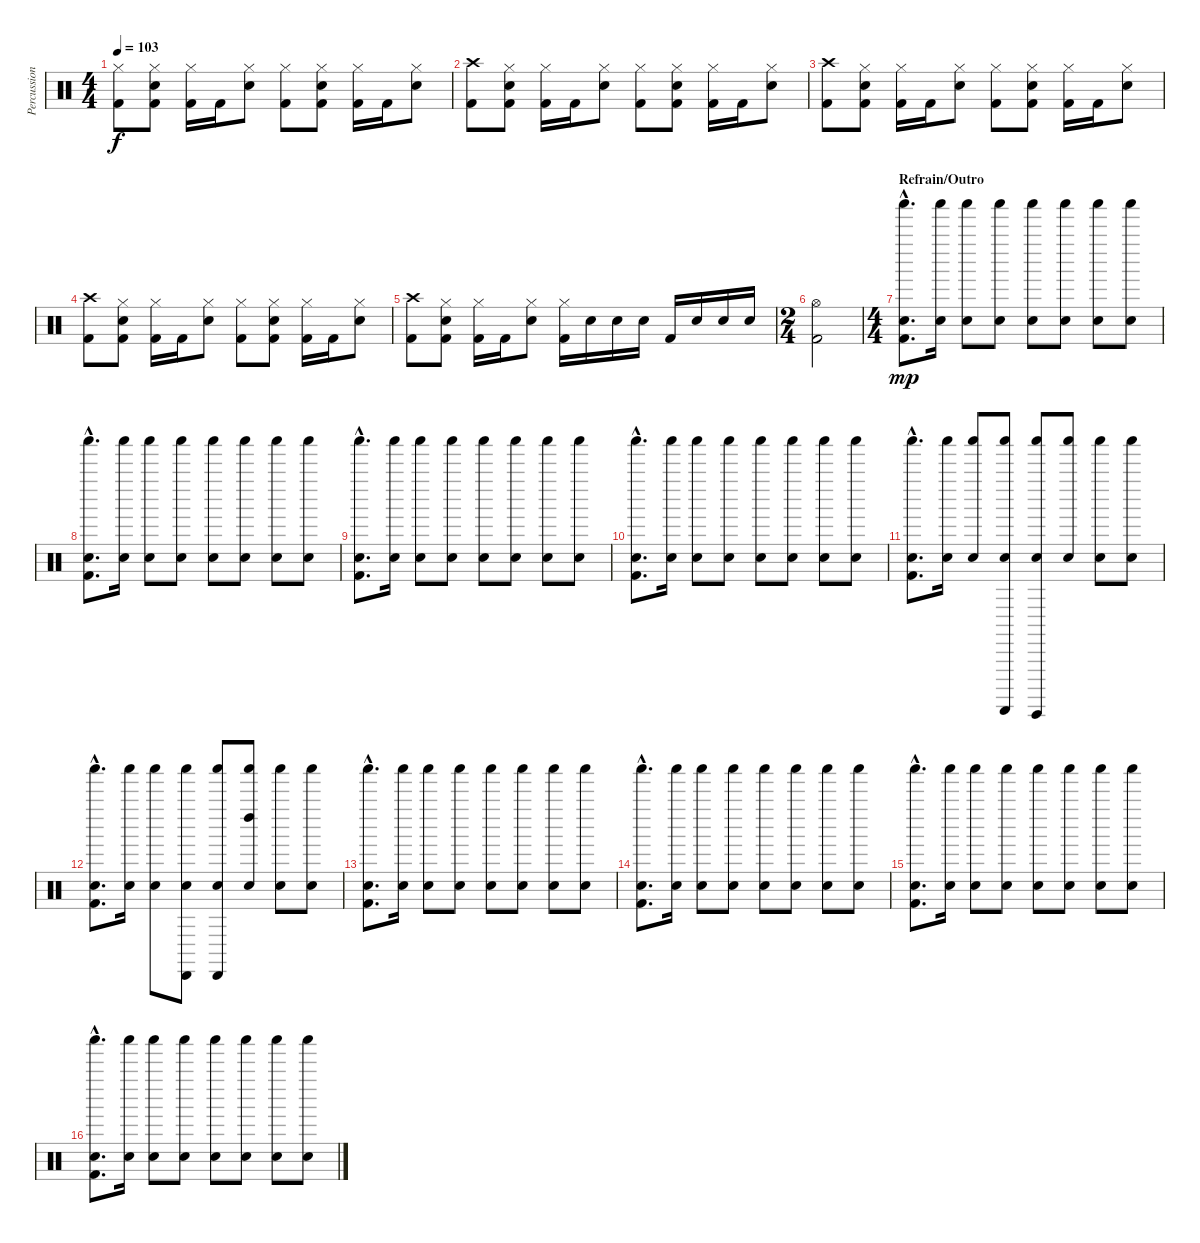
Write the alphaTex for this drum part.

\track ("Percussion" "Percussion") {instrument percussion}
\staff {score}
\articulation defaults
\ts (4 4)
\tempo 103
\clef neutral
\ks c
("Hi-Hat (closed)" "Kick (hit) 2").8{dy f} ("Hi-Hat (closed)" "Electric Snare (hit)" "Kick (hit) 2").8 ("Hi-Hat (closed)" "Kick (hit) 2").16 "Kick (hit) 2".16 ("Hi-Hat (closed)" "Electric Snare (hit)").8 ("Hi-Hat (closed)" "Kick (hit) 2").8 ("Hi-Hat (closed)" "Electric Snare (hit)" "Kick (hit) 2").8 ("Hi-Hat (closed)" "Kick (hit) 2").16 "Kick (hit) 2".16 ("Hi-Hat (closed)" "Electric Snare (hit)").8 |
("Crash high (hit)" "Kick (hit) 2").8 ("Hi-Hat (closed)" "Electric Snare (hit)" "Kick (hit) 2").8 ("Hi-Hat (closed)" "Kick (hit) 2").16 "Kick (hit) 2".16 ("Hi-Hat (closed)" "Electric Snare (hit)").8 ("Hi-Hat (closed)" "Kick (hit) 2").8 ("Hi-Hat (closed)" "Electric Snare (hit)" "Kick (hit) 2").8 ("Hi-Hat (closed)" "Kick (hit) 2").16 "Kick (hit) 2".16 ("Hi-Hat (closed)" "Electric Snare (hit)").8 |
("Crash high (hit)" "Kick (hit) 2").8 ("Hi-Hat (closed)" "Electric Snare (hit)" "Kick (hit) 2").8 ("Hi-Hat (closed)" "Kick (hit) 2").16 "Kick (hit) 2".16 ("Hi-Hat (closed)" "Electric Snare (hit)").8 ("Hi-Hat (closed)" "Kick (hit) 2").8 ("Hi-Hat (closed)" "Electric Snare (hit)" "Kick (hit) 2").8 ("Hi-Hat (closed)" "Kick (hit) 2").16 "Kick (hit) 2".16 ("Hi-Hat (closed)" "Electric Snare (hit)").8 |
("Crash high (hit)" "Kick (hit) 2").8 ("Hi-Hat (closed)" "Electric Snare (hit)" "Kick (hit) 2").8 ("Hi-Hat (closed)" "Kick (hit) 2").16 "Kick (hit) 2".16 ("Hi-Hat (closed)" "Electric Snare (hit)").8 ("Hi-Hat (closed)" "Kick (hit) 2").8 ("Hi-Hat (closed)" "Electric Snare (hit)" "Kick (hit) 2").8 ("Hi-Hat (closed)" "Kick (hit) 2").16 "Kick (hit) 2".16 ("Hi-Hat (closed)" "Electric Snare (hit)").8 |
("Crash high (hit)" "Kick (hit) 2").8 ("Hi-Hat (closed)" "Electric Snare (hit)" "Kick (hit) 2").8 ("Hi-Hat (closed)" "Kick (hit) 2").16 "Kick (hit) 2".16 ("Hi-Hat (closed)" "Electric Snare (hit)").8 ("Hi-Hat (closed)" "Kick (hit) 2").16 "Electric Snare (hit)".16 "Electric Snare (hit)".16 "Electric Snare (hit)".16 "Kick (hit) 2".16 "Electric Snare (hit)".16 "Electric Snare (hit)".16 "Electric Snare (hit)".16 |
\ts (2 4)
("Hi-Hat (open)" "Kick (hit) 2").2 |
\ts (4 4)
\section ("" "Refrain/Outro")
("Electric Snare (hit)"{hac} "Shaker (hit)"{hac} "Kick (hit) 2"{hac}).8{d dy mp} ("Electric Snare (hit)" "Shaker (hit)").16 ("Electric Snare (hit)" "Shaker (hit)").8 ("Electric Snare (hit)" "Shaker (hit)").8 ("Electric Snare (hit)" "Shaker (hit)").8 ("Electric Snare (hit)" "Shaker (hit)").8 ("Electric Snare (hit)" "Shaker (hit)").8 ("Electric Snare (hit)" "Shaker (hit)").8 |
("Electric Snare (hit)"{hac} "Shaker (hit)"{hac} "Kick (hit) 2"{hac}).8{d} ("Electric Snare (hit)" "Shaker (hit)").16 ("Electric Snare (hit)" "Shaker (hit)").8 ("Electric Snare (hit)" "Shaker (hit)").8 ("Electric Snare (hit)" "Shaker (hit)").8 ("Electric Snare (hit)" "Shaker (hit)").8 ("Electric Snare (hit)" "Shaker (hit)").8 ("Electric Snare (hit)" "Shaker (hit)").8 |
("Electric Snare (hit)"{hac} "Shaker (hit)"{hac} "Kick (hit) 2"{hac}).8{d} ("Electric Snare (hit)" "Shaker (hit)").16 ("Electric Snare (hit)" "Shaker (hit)").8 ("Electric Snare (hit)" "Shaker (hit)").8 ("Electric Snare (hit)" "Shaker (hit)").8 ("Electric Snare (hit)" "Shaker (hit)").8 ("Electric Snare (hit)" "Shaker (hit)").8 ("Electric Snare (hit)" "Shaker (hit)").8 |
("Electric Snare (hit)"{hac} "Shaker (hit)"{hac} "Kick (hit) 2"{hac}).8{d} ("Electric Snare (hit)" "Shaker (hit)").16 ("Electric Snare (hit)" "Shaker (hit)").8 ("Electric Snare (hit)" "Shaker (hit)").8 ("Electric Snare (hit)" "Shaker (hit)").8 ("Electric Snare (hit)" "Shaker (hit)").8 ("Electric Snare (hit)" "Shaker (hit)").8 ("Electric Snare (hit)" "Shaker (hit)").8 |
("Electric Snare (hit)"{hac} "Shaker (hit)"{hac} "Kick (hit) 2"{hac}).8{d} ("Electric Snare (hit)" "Shaker (hit)").16 ("Electric Snare (hit)" "Shaker (hit)").8 ("Guiro (scrap-return)" "Electric Snare (hit)" "Shaker (hit)").8 ("Guiro (hit)" "Electric Snare (hit)" "Shaker (hit)").8 ("Electric Snare (hit)" "Shaker (hit)").8 ("Electric Snare (hit)" "Shaker (hit)").8 ("Electric Snare (hit)" "Shaker (hit)").8 |
("Electric Snare (hit)"{hac} "Shaker (hit)"{hac} "Kick (hit) 2"{hac}).8{d} ("Electric Snare (hit)" "Shaker (hit)").16 ("Electric Snare (hit)" "Shaker (hit)").8 ("Cabasa (hit)" "Electric Snare (hit)" "Shaker (hit)").8 ("Cabasa (hit)" "Electric Snare (hit)" "Shaker (hit)").8 ("Left Maraca (hit)" "Electric Snare (hit)" "Shaker (hit)").8 ("Electric Snare (hit)" "Shaker (hit)").8 ("Electric Snare (hit)" "Shaker (hit)").8 |
("Electric Snare (hit)"{hac} "Shaker (hit)"{hac} "Kick (hit) 2"{hac}).8{d} ("Electric Snare (hit)" "Shaker (hit)").16 ("Electric Snare (hit)" "Shaker (hit)").8 ("Electric Snare (hit)" "Shaker (hit)").8 ("Electric Snare (hit)" "Shaker (hit)").8 ("Electric Snare (hit)" "Shaker (hit)").8 ("Electric Snare (hit)" "Shaker (hit)").8 ("Electric Snare (hit)" "Shaker (hit)").8 |
("Electric Snare (hit)"{hac} "Shaker (hit)"{hac} "Kick (hit) 2"{hac}).8{d} ("Electric Snare (hit)" "Shaker (hit)").16 ("Electric Snare (hit)" "Shaker (hit)").8 ("Electric Snare (hit)" "Shaker (hit)").8 ("Electric Snare (hit)" "Shaker (hit)").8 ("Electric Snare (hit)" "Shaker (hit)").8 ("Electric Snare (hit)" "Shaker (hit)").8 ("Electric Snare (hit)" "Shaker (hit)").8 |
("Electric Snare (hit)"{hac} "Shaker (hit)"{hac} "Kick (hit) 2"{hac}).8{d} ("Electric Snare (hit)" "Shaker (hit)").16 ("Electric Snare (hit)" "Shaker (hit)").8 ("Electric Snare (hit)" "Shaker (hit)").8 ("Electric Snare (hit)" "Shaker (hit)").8 ("Electric Snare (hit)" "Shaker (hit)").8 ("Electric Snare (hit)" "Shaker (hit)").8 ("Electric Snare (hit)" "Shaker (hit)").8 |
("Electric Snare (hit)"{hac} "Shaker (hit)"{hac} "Kick (hit) 2"{hac}).8{d} ("Electric Snare (hit)" "Shaker (hit)").16 ("Electric Snare (hit)" "Shaker (hit)").8 ("Electric Snare (hit)" "Shaker (hit)").8 ("Electric Snare (hit)" "Shaker (hit)").8 ("Electric Snare (hit)" "Shaker (hit)").8 ("Electric Snare (hit)" "Shaker (hit)").8 ("Electric Snare (hit)" "Shaker (hit)").8
